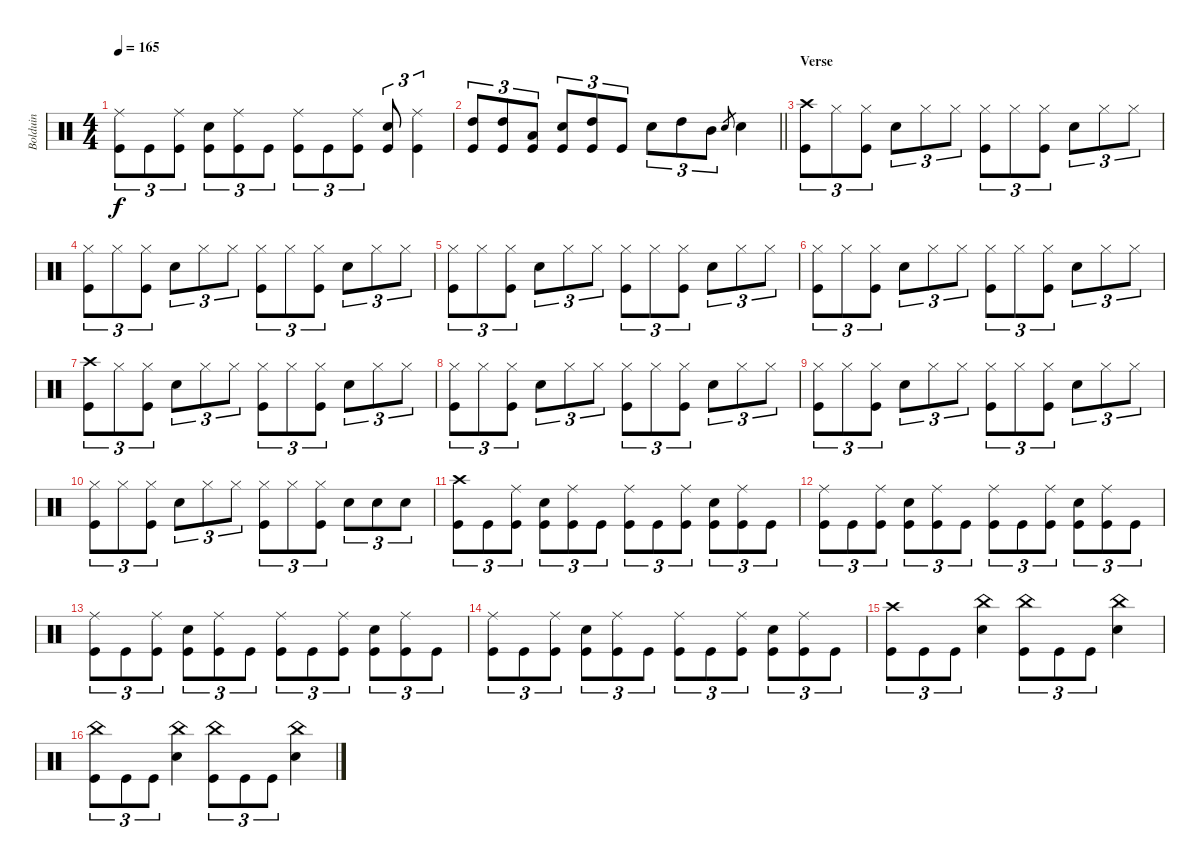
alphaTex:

\track ("Bolduin" "Bolduin") {instrument percussion}
\staff {score}
\articulation defaults
\ts (4 4)
\tempo 165
\clef neutral
\ks aminor
("Kick (hit)" "Ride (middle)").8{tu (3 2) dy f} "Kick (hit)".8{tu (3 2)} ("Kick (hit)" "Ride (middle)").8{tu (3 2)} ("Kick (hit)" "Snare (hit) 2").8{tu (3 2)} ("Kick (hit)" "Ride (middle)").8{tu (3 2)} "Kick (hit)".8{tu (3 2)} ("Kick (hit)" "Ride (middle)").8{tu (3 2)} "Kick (hit)".8{tu (3 2)} ("Kick (hit)" "Ride (middle)").8{tu (3 2)} ("Kick (hit)" "Snare (hit) 2").8{tu (3 2)} ("Kick (hit)" "Ride (middle)").4{tu (3 2)} |
\barLineRight lightlight
("High Tom (hit)" "Kick (hit)").8{tu (3 2)} ("High Tom (hit)" "Kick (hit)").8{tu (3 2)} ("Low Tom (hit)" "Kick (hit)").8{tu (3 2)} ("Kick (hit)" "Snare (hit) 2").8{tu (3 2)} ("High Tom (hit)" "Kick (hit)").8{tu (3 2)} "Kick (hit)".8{tu (3 2)} "Snare (hit) 2".8{tu (3 2)} "High Tom (hit)".8{tu (3 2)} "Mid Tom (hit)".8{tu (3 2)} "Snare (hit) 2".8{gr} "Snare (hit) 2".4 |
\section ("" "Verse")
("Kick (hit)" "Crash high (hit)").8{tu (3 2)} "Hi-Hat (closed)".8{tu (3 2)} ("Kick (hit)" "Hi-Hat (closed)").8{tu (3 2)} "Snare (hit) 2".8{tu (3 2)} "Hi-Hat (closed)".8{tu (3 2)} "Hi-Hat (closed)".8{tu (3 2)} ("Kick (hit)" "Hi-Hat (closed)").8{tu (3 2)} "Hi-Hat (closed)".8{tu (3 2)} ("Kick (hit)" "Hi-Hat (closed)").8{tu (3 2)} "Snare (hit) 2".8{tu (3 2)} "Hi-Hat (closed)".8{tu (3 2)} "Hi-Hat (closed)".8{tu (3 2)} |
("Kick (hit)" "Hi-Hat (closed)").8{tu (3 2)} "Hi-Hat (closed)".8{tu (3 2)} ("Kick (hit)" "Hi-Hat (closed)").8{tu (3 2)} "Snare (hit) 2".8{tu (3 2)} "Hi-Hat (closed)".8{tu (3 2)} "Hi-Hat (closed)".8{tu (3 2)} ("Kick (hit)" "Hi-Hat (closed)").8{tu (3 2)} "Hi-Hat (closed)".8{tu (3 2)} ("Kick (hit)" "Hi-Hat (closed)").8{tu (3 2)} "Snare (hit) 2".8{tu (3 2)} "Hi-Hat (closed)".8{tu (3 2)} "Hi-Hat (closed)".8{tu (3 2)} |
("Kick (hit)" "Hi-Hat (closed)").8{tu (3 2)} "Hi-Hat (closed)".8{tu (3 2)} ("Kick (hit)" "Hi-Hat (closed)").8{tu (3 2)} "Snare (hit) 2".8{tu (3 2)} "Hi-Hat (closed)".8{tu (3 2)} "Hi-Hat (closed)".8{tu (3 2)} ("Kick (hit)" "Hi-Hat (closed)").8{tu (3 2)} "Hi-Hat (closed)".8{tu (3 2)} ("Kick (hit)" "Hi-Hat (closed)").8{tu (3 2)} "Snare (hit) 2".8{tu (3 2)} "Hi-Hat (closed)".8{tu (3 2)} "Hi-Hat (closed)".8{tu (3 2)} |
("Kick (hit)" "Hi-Hat (closed)").8{tu (3 2)} "Hi-Hat (closed)".8{tu (3 2)} ("Kick (hit)" "Hi-Hat (closed)").8{tu (3 2)} "Snare (hit) 2".8{tu (3 2)} "Hi-Hat (closed)".8{tu (3 2)} "Hi-Hat (closed)".8{tu (3 2)} ("Kick (hit)" "Hi-Hat (closed)").8{tu (3 2)} "Hi-Hat (closed)".8{tu (3 2)} ("Kick (hit)" "Hi-Hat (closed)").8{tu (3 2)} "Snare (hit) 2".8{tu (3 2)} "Hi-Hat (closed)".8{tu (3 2)} "Hi-Hat (closed)".8{tu (3 2)} |
("Kick (hit)" "Crash high (hit)").8{tu (3 2)} "Hi-Hat (closed)".8{tu (3 2)} ("Kick (hit)" "Hi-Hat (closed)").8{tu (3 2)} "Snare (hit) 2".8{tu (3 2)} "Hi-Hat (closed)".8{tu (3 2)} "Hi-Hat (closed)".8{tu (3 2)} ("Kick (hit)" "Hi-Hat (closed)").8{tu (3 2)} "Hi-Hat (closed)".8{tu (3 2)} ("Kick (hit)" "Hi-Hat (closed)").8{tu (3 2)} "Snare (hit) 2".8{tu (3 2)} "Hi-Hat (closed)".8{tu (3 2)} "Hi-Hat (closed)".8{tu (3 2)} |
("Kick (hit)" "Hi-Hat (closed)").8{tu (3 2)} "Hi-Hat (closed)".8{tu (3 2)} ("Kick (hit)" "Hi-Hat (closed)").8{tu (3 2)} "Snare (hit) 2".8{tu (3 2)} "Hi-Hat (closed)".8{tu (3 2)} "Hi-Hat (closed)".8{tu (3 2)} ("Kick (hit)" "Hi-Hat (closed)").8{tu (3 2)} "Hi-Hat (closed)".8{tu (3 2)} ("Kick (hit)" "Hi-Hat (closed)").8{tu (3 2)} "Snare (hit) 2".8{tu (3 2)} "Hi-Hat (closed)".8{tu (3 2)} "Hi-Hat (closed)".8{tu (3 2)} |
("Kick (hit)" "Hi-Hat (closed)").8{tu (3 2)} "Hi-Hat (closed)".8{tu (3 2)} ("Kick (hit)" "Hi-Hat (closed)").8{tu (3 2)} "Snare (hit) 2".8{tu (3 2)} "Hi-Hat (closed)".8{tu (3 2)} "Hi-Hat (closed)".8{tu (3 2)} ("Kick (hit)" "Hi-Hat (closed)").8{tu (3 2)} "Hi-Hat (closed)".8{tu (3 2)} ("Kick (hit)" "Hi-Hat (closed)").8{tu (3 2)} "Snare (hit) 2".8{tu (3 2)} "Hi-Hat (closed)".8{tu (3 2)} "Hi-Hat (closed)".8{tu (3 2)} |
("Kick (hit)" "Hi-Hat (closed)").8{tu (3 2)} "Hi-Hat (closed)".8{tu (3 2)} ("Kick (hit)" "Hi-Hat (closed)").8{tu (3 2)} "Snare (hit) 2".8{tu (3 2)} "Hi-Hat (closed)".8{tu (3 2)} "Hi-Hat (closed)".8{tu (3 2)} ("Kick (hit)" "Hi-Hat (closed)").8{tu (3 2)} "Hi-Hat (closed)".8{tu (3 2)} ("Kick (hit)" "Hi-Hat (closed)").8{tu (3 2)} "Snare (hit) 2".8{tu (3 2)} "Snare (hit) 2".8{tu (3 2)} "Snare (hit) 2".8{tu (3 2)} |
("Crash high (hit)" "Kick (hit)").8{tu (3 2)} "Kick (hit)".8{tu (3 2)} ("Kick (hit)" "Ride (middle)").8{tu (3 2)} ("Kick (hit)" "Snare (hit) 2").8{tu (3 2)} ("Kick (hit)" "Ride (middle)").8{tu (3 2)} "Kick (hit)".8{tu (3 2)} ("Kick (hit)" "Ride (middle)").8{tu (3 2)} "Kick (hit)".8{tu (3 2)} ("Kick (hit)" "Ride (middle)").8{tu (3 2)} ("Kick (hit)" "Snare (hit) 2").8{tu (3 2)} ("Kick (hit)" "Ride (middle)").8{tu (3 2)} "Kick (hit)".8{tu (3 2)} |
("Kick (hit)" "Ride (middle)").8{tu (3 2)} "Kick (hit)".8{tu (3 2)} ("Kick (hit)" "Ride (middle)").8{tu (3 2)} ("Kick (hit)" "Snare (hit) 2").8{tu (3 2)} ("Kick (hit)" "Ride (middle)").8{tu (3 2)} "Kick (hit)".8{tu (3 2)} ("Kick (hit)" "Ride (middle)").8{tu (3 2)} "Kick (hit)".8{tu (3 2)} ("Kick (hit)" "Ride (middle)").8{tu (3 2)} ("Kick (hit)" "Snare (hit) 2").8{tu (3 2)} ("Kick (hit)" "Ride (middle)").8{tu (3 2)} "Kick (hit)".8{tu (3 2)} |
("Kick (hit)" "Ride (middle)").8{tu (3 2)} "Kick (hit)".8{tu (3 2)} ("Kick (hit)" "Ride (middle)").8{tu (3 2)} ("Kick (hit)" "Snare (hit) 2").8{tu (3 2)} ("Kick (hit)" "Ride (middle)").8{tu (3 2)} "Kick (hit)".8{tu (3 2)} ("Kick (hit)" "Ride (middle)").8{tu (3 2)} "Kick (hit)".8{tu (3 2)} ("Kick (hit)" "Ride (middle)").8{tu (3 2)} ("Kick (hit)" "Snare (hit) 2").8{tu (3 2)} ("Kick (hit)" "Ride (middle)").8{tu (3 2)} "Kick (hit)".8{tu (3 2)} |
("Kick (hit)" "Ride (middle)").8{tu (3 2)} "Kick (hit)".8{tu (3 2)} ("Kick (hit)" "Ride (middle)").8{tu (3 2)} ("Kick (hit)" "Snare (hit) 2").8{tu (3 2)} ("Kick (hit)" "Ride (middle)").8{tu (3 2)} "Kick (hit)".8{tu (3 2)} ("Kick (hit)" "Ride (middle)").8{tu (3 2)} "Kick (hit)".8{tu (3 2)} ("Kick (hit)" "Ride (middle)").8{tu (3 2)} ("Kick (hit)" "Snare (hit) 2").8{tu (3 2)} ("Kick (hit)" "Ride (middle)").8{tu (3 2)} "Kick (hit)".8{tu (3 2)} |
("Crash high (hit)" "Kick (hit)").8{tu (3 2)} "Kick (hit)".8{tu (3 2)} "Kick (hit)".8{tu (3 2)} ("China (hit)" "Snare (hit) 2").4 ("Kick (hit)" "China (hit)").8{tu (3 2)} "Kick (hit)".8{tu (3 2)} "Kick (hit)".8{tu (3 2)} ("Snare (hit) 2" "China (hit)").4 |
("China (hit)" "Kick (hit)").8{tu (3 2)} "Kick (hit)".8{tu (3 2)} "Kick (hit)".8{tu (3 2)} ("China (hit)" "Snare (hit) 2").4 ("Kick (hit)" "China (hit)").8{tu (3 2)} "Kick (hit)".8{tu (3 2)} "Kick (hit)".8{tu (3 2)} ("Snare (hit) 2" "China (hit)").4
